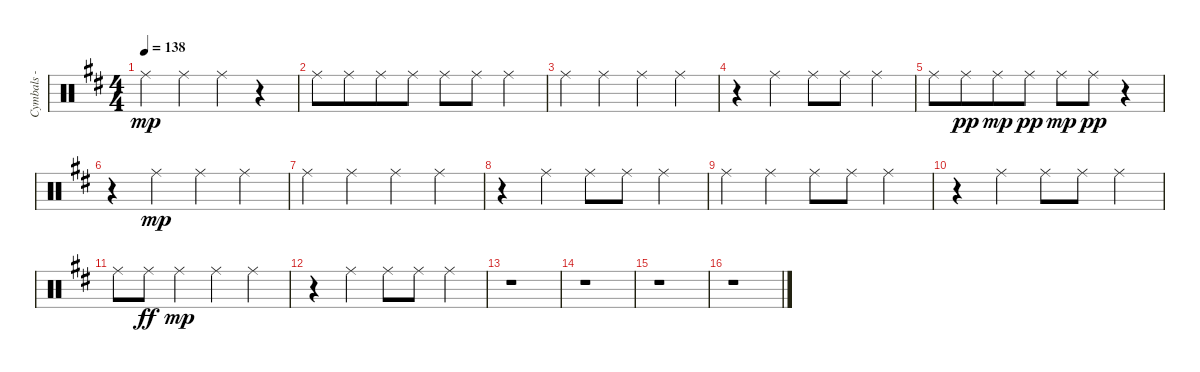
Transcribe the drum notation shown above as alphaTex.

\track ("Cymbals - ride" "Cymbals - ") {instrument percussion}
\staff {score}
\articulation defaults
\ts (4 4)
\tempo 138
\clef neutral
\ks d "Ride (middle)".4{dy mp} "Ride (middle)".4 "Ride (middle)".4
r.4 |
"Ride (middle)".8 "Ride (middle)".8{beam merge} "Ride (middle)".8 "Ride (middle)".8 "Ride (middle)".8 "Ride (middle)".8 "Ride (middle)".4 |
"Ride (middle)".4 "Ride (middle)".4 "Ride (middle)".4 "Ride (middle)".4 |
r.4 "Ride (middle)".4 "Ride (middle)".8 "Ride (middle)".8 "Ride (middle)".4 |
"Ride (middle)".8 "Ride (middle)".8{dy pp beam merge} "Ride (middle)".8{dy mp} "Ride (middle)".8{dy pp} "Ride (middle)".8{dy mp} "Ride (middle)".8{dy pp} r.4 |
r.4 "Ride (middle)".4{dy mp} "Ride (middle)".4 "Ride (middle)".4 |
"Ride (middle)".4 "Ride (middle)".4 "Ride (middle)".4 "Ride (middle)".4 |
r.4 "Ride (middle)".4 "Ride (middle)".8 "Ride (middle)".8 "Ride (middle)".4 |
"Ride (middle)".4 "Ride (middle)".4 "Ride (middle)".8 "Ride (middle)".8 "Ride (middle)".4 |
r.4 "Ride (middle)".4 "Ride (middle)".8 "Ride (middle)".8 "Ride (middle)".4 |
"Ride (middle)".8 "Ride (middle)".8{dy ff} "Ride (middle)".4{dy mp} "Ride (middle)".4 "Ride (middle)".4 |
r.4 "Ride (middle)".4 "Ride (middle)".8 "Ride (middle)".8 "Ride (middle)".4 |
r.1 |
r.1 |
r.1 |
r.1
